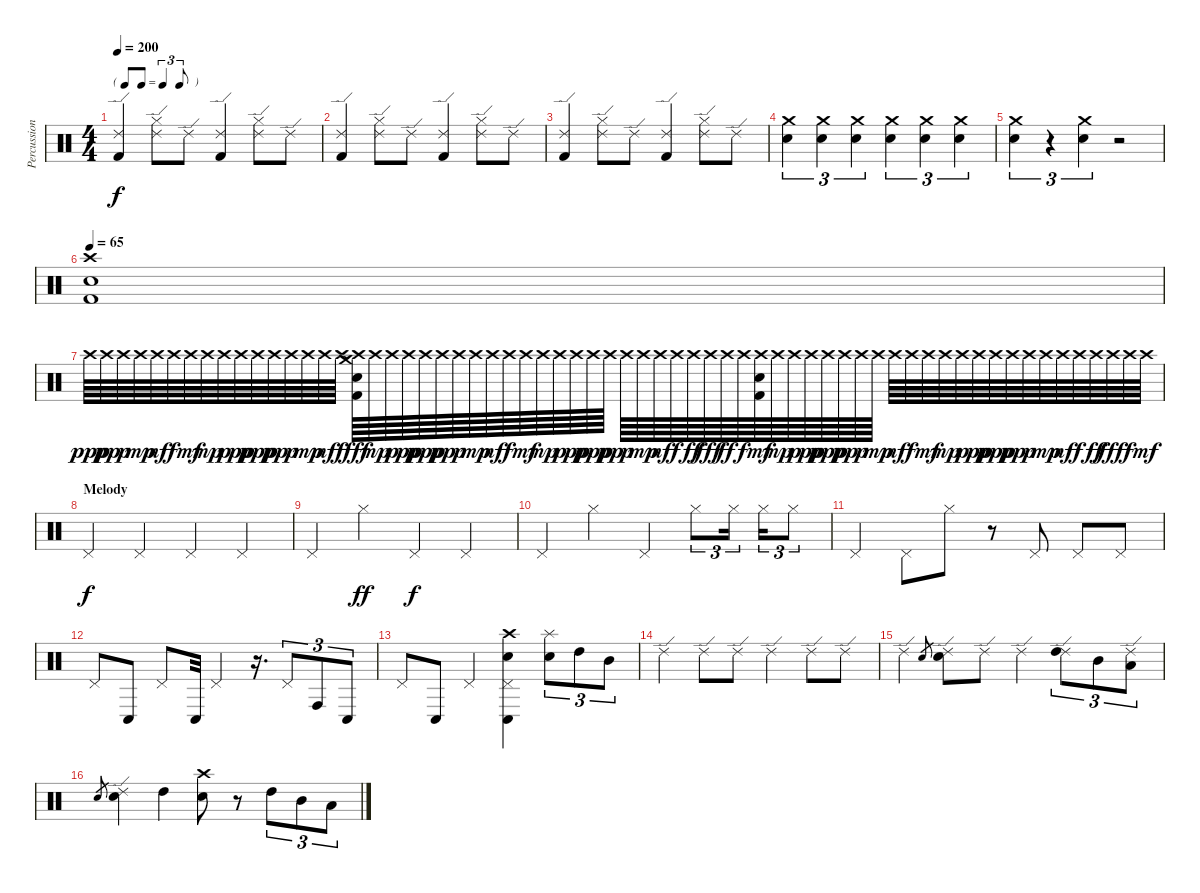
\track ("Percussion" "Percussion") {instrument percussion}
\staff {score}
\articulation defaults
\ts (4 4)
\tf triplet8th
\tempo 200
\clef neutral
\ks c
("Ride (edge) 2" "Kick (hit) 2").4{dy f volume 11} ("Ride (edge) 2" "Hi-Hat (closed)").8 "Ride (edge) 2".8 ("Ride (edge) 2" "Kick (hit) 2").4 ("Ride (edge) 2" "Hi-Hat (closed)").8 "Ride (edge) 2".8 |
("Ride (edge) 2" "Kick (hit) 2").4{volume 11} ("Ride (edge) 2" "Hi-Hat (closed)").8 "Ride (edge) 2".8 ("Ride (edge) 2" "Kick (hit) 2").4 ("Ride (edge) 2" "Hi-Hat (closed)").8 "Ride (edge) 2".8 |
("Ride (edge) 2" "Kick (hit) 2").4{volume 11} ("Ride (edge) 2" "Hi-Hat (closed)").8 "Ride (edge) 2".8 ("Ride (edge) 2" "Kick (hit) 2").4 ("Ride (edge) 2" "Hi-Hat (closed)").8 "Ride (edge) 2".8 |
("Crash medium (hit)" "Electric Snare (hit)").4{tu (3 2)} ("Crash medium (hit)" "Electric Snare (hit)").4{tu (3 2)} ("Crash medium (hit)" "Electric Snare (hit)").4{tu (3 2)} ("Crash medium (hit)" "Electric Snare (hit)").4{tu (3 2)} ("Crash medium (hit)" "Electric Snare (hit)").4{tu (3 2)} ("Crash medium (hit)" "Electric Snare (hit)").4{tu (3 2)} |
("Crash medium (hit)" "Electric Snare (hit)").4{tu (3 2)} r.4{tu (3 2)} ("Crash medium (hit)" "Electric Snare (hit)").4{tu (3 2)} r.2 |
\tempo 65
("Crash high (hit)" "Electric Snare (hit)" "Kick (hit) 2").1 |
"Crash high (hit)".64{dy ppp} "Crash high (hit)".64{dy pp} "Crash high (hit)".64{dy p} "Crash high (hit)".64{dy mp} "Crash high (hit)".64{dy mf} "Crash high (hit)".64{dy f} "Crash high (hit)".64{dy mf} "Crash high (hit)".64{dy mp} "Crash high (hit)".64{dy p} "Crash high (hit)".64{dy pp} "Crash high (hit)".64{dy ppp} "Crash high (hit)".64{dy pp} "Crash high (hit)".64{dy p} "Crash high (hit)".64{dy mp} "Crash high (hit)".64{dy mf} "Crash high (hit)".64{dy f} ("Crash high (hit)" "Electric Snare (hit)" "Crash medium (hit)" "Kick (hit) 2").64{dy fff} "Crash high (hit)".64{dy mp} "Crash high (hit)".64{dy p} "Crash high (hit)".64{dy pp} "Crash high (hit)".64{dy ppp} "Crash high (hit)".64{dy pp} "Crash high (hit)".64{dy p} "Crash high (hit)".64{dy mp} "Crash high (hit)".64{dy mf} "Crash high (hit)".64{dy f} "Crash high (hit)".64{dy mf} "Crash high (hit)".64{dy mp} "Crash high (hit)".64{dy p} "Crash high (hit)".64{dy pp} "Crash high (hit)".64{dy ppp} "Crash high (hit)".64{dy pp} "Crash high (hit)".64{dy p} "Crash high (hit)".64{dy mp} "Crash high (hit)".64{dy mf} "Crash high (hit)".64{dy f} "Crash high (hit)".64{dy ff} "Crash high (hit)".64{dy fff} "Crash high (hit)".64{dy ff} "Crash high (hit)".64{dy f} ("Crash high (hit)" "Electric Snare (hit)" "Kick (hit) 2").64{dy mf} "Crash high (hit)".64{dy mp} "Crash high (hit)".64{dy p} "Crash high (hit)".64{dy pp} "Crash high (hit)".64{dy ppp} "Crash high (hit)".64{dy pp} "Crash high (hit)".64{dy p} "Crash high (hit)".64{dy mp} "Crash high (hit)".64{dy mf} "Crash high (hit)".64{dy f} "Crash high (hit)".64{dy mf} "Crash high (hit)".64{dy mp} "Crash high (hit)".64{dy p} "Crash high (hit)".64{dy pp} "Crash high (hit)".64{dy ppp} "Crash high (hit)".64{dy pp} "Crash high (hit)".64{dy p} "Crash high (hit)".64{dy mp} "Crash high (hit)".64{dy mf} "Crash high (hit)".64{dy f} "Crash high (hit)".64{dy ff} "Crash high (hit)".64{dy fff} "Crash high (hit)".64{dy f} "Crash high (hit)".64{dy mf} |
\section ("" "Melody")
"Pedal Hi-Hat (hit)".4{dy f} "Pedal Hi-Hat (hit)".4 "Pedal Hi-Hat (hit)".4 "Pedal Hi-Hat (hit)".4 |
"Pedal Hi-Hat (hit)".4 "Hi-Hat (closed)".4{dy ff} "Pedal Hi-Hat (hit)".4{dy f} "Pedal Hi-Hat (hit)".4 |
"Pedal Hi-Hat (hit)".4 "Hi-Hat (closed)".4 "Pedal Hi-Hat (hit)".4 "Hi-Hat (closed)".8{tu (3 2)} "Hi-Hat (closed)".16{tu (3 2)} "Hi-Hat (closed)".16{tu (3 2)} "Hi-Hat (closed)".8{tu (3 2)} |
"Pedal Hi-Hat (hit)".4 "Pedal Hi-Hat (hit)".8 "Hi-Hat (closed)".8 r.8 "Pedal Hi-Hat (hit)".8 "Pedal Hi-Hat (hit)".8 "Pedal Hi-Hat (hit)".8 |
"Pedal Hi-Hat (hit)".8 "Conga low (hit)".8 "Pedal Hi-Hat (hit)".8 "Conga low (hit)".32 "Pedal Hi-Hat (hit)".4 r.16{d} "Pedal Hi-Hat (hit)".8{tu (3 2)} "Conga high (hit)".8{tu (3 2)} "Conga low (hit)".8{tu (3 2)} |
"Pedal Hi-Hat (hit)".8 "Conga low (hit)".8 "Pedal Hi-Hat (hit)".4 ("Crash high (hit)" "Pedal Hi-Hat (hit)" "Snare (hit) 2" "Conga low (hit)").4 ("Splash (hit)" "Snare (hit) 2").8{tu (3 2)} "High Tom (hit)".8{tu (3 2)} "Mid Tom (hit)".8{tu (3 2)} |
"Ride (edge) 2".4 "Ride (edge) 2".8 "Ride (edge) 2".8 "Ride (edge) 2".4 "Ride (edge) 2".8 "Ride (edge) 2".8 |
"Ride (edge) 2".4 "Snare (hit) 2".8{gr} ("Ride (edge) 2" "Snare (hit) 2").8 "Ride (edge) 2".8 "Ride (edge) 2".4 ("Ride (edge) 2" "High Tom (hit)").8{tu (3 2)} "Mid Tom (hit)".8{tu (3 2)} ("Ride (edge) 2" "Low Tom (hit)").8{tu (3 2)} |
"Snare (hit) 2".8{gr} ("Ride (edge) 2" "Snare (hit) 2").4 "High Tom (hit)".4 ("Crash high (hit)" "Electric Snare (hit)").8 r.8 "High Tom (hit)".8{tu (3 2)} "Mid Tom (hit)".8{tu (3 2)} "Low Tom (hit)".8{tu (3 2)}
